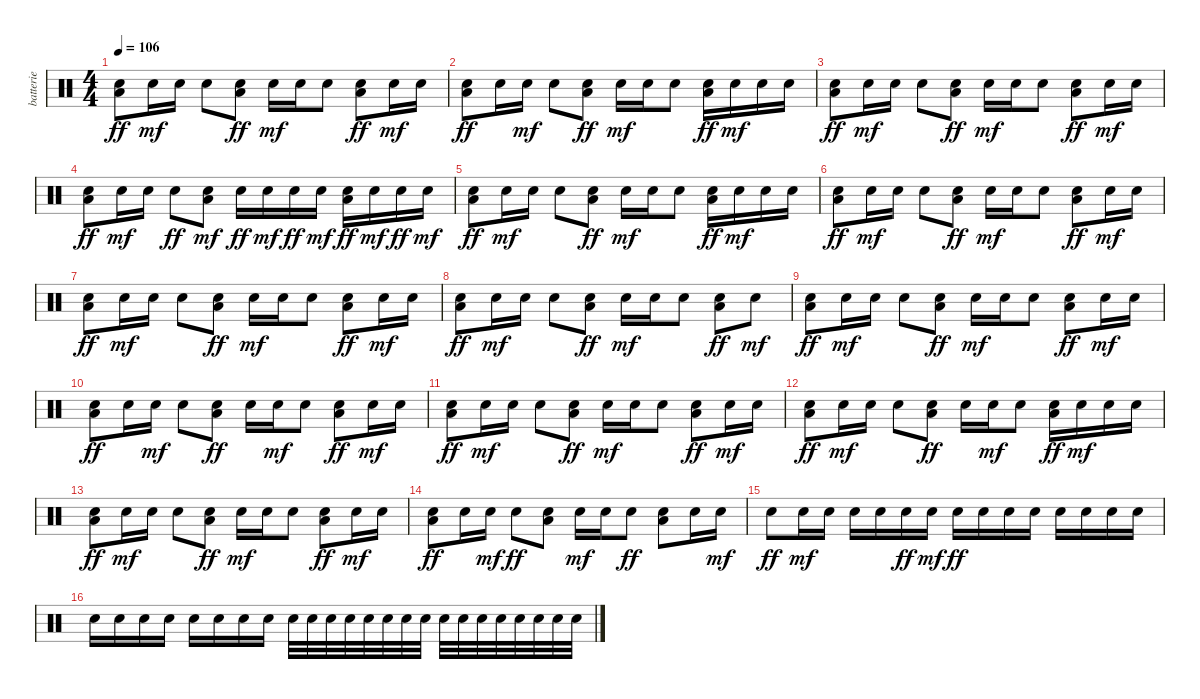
\track ("batterie" "batterie") {instrument percussion}
\staff {score}
\articulation defaults
\ts (4 4)
\tempo 106
\clef neutral
\ks c
("Electric Snare (hit)" "Low Floor Tom (hit)").8{dy ff} "Electric Snare (hit)".16{dy mf} "Electric Snare (hit)".16 "Electric Snare (hit)".8 ("Electric Snare (hit)" "Low Floor Tom (hit)").8{dy ff} "Electric Snare (hit)".16{dy mf} "Electric Snare (hit)".16 "Electric Snare (hit)".8 ("Electric Snare (hit)" "Low Floor Tom (hit)").8{dy ff} "Electric Snare (hit)".16{dy mf} "Electric Snare (hit)".16 |
("Electric Snare (hit)" "Low Floor Tom (hit)").8{dy ff} "Electric Snare (hit)".16 "Electric Snare (hit)".16{dy mf} "Electric Snare (hit)".8 ("Electric Snare (hit)" "Low Floor Tom (hit)").8{dy ff} "Electric Snare (hit)".16{dy mf} "Electric Snare (hit)".16 "Electric Snare (hit)".8 ("Electric Snare (hit)" "Low Floor Tom (hit)").16{dy ff} "Electric Snare (hit)".16{dy mf} "Electric Snare (hit)".16 "Electric Snare (hit)".16 |
("Electric Snare (hit)" "Low Floor Tom (hit)").8{dy ff} "Electric Snare (hit)".16{dy mf} "Electric Snare (hit)".16 "Electric Snare (hit)".8 ("Electric Snare (hit)" "Low Floor Tom (hit)").8{dy ff} "Electric Snare (hit)".16{dy mf} "Electric Snare (hit)".16 "Electric Snare (hit)".8 ("Electric Snare (hit)" "Low Floor Tom (hit)").8{dy ff} "Electric Snare (hit)".16{dy mf} "Electric Snare (hit)".16 |
("Electric Snare (hit)" "Low Floor Tom (hit)").8{dy ff} "Electric Snare (hit)".16{dy mf} "Electric Snare (hit)".16 "Electric Snare (hit)".8{dy ff} ("Electric Snare (hit)" "Low Floor Tom (hit)").8{dy mf} "Electric Snare (hit)".16{dy ff} "Electric Snare (hit)".16{dy mf} "Electric Snare (hit)".16{dy ff} "Electric Snare (hit)".16{dy mf} ("Electric Snare (hit)" "Low Floor Tom (hit)").16{dy ff} "Electric Snare (hit)".16{dy mf} "Electric Snare (hit)".16{dy ff} "Electric Snare (hit)".16{dy mf} |
("Electric Snare (hit)" "Low Floor Tom (hit)").8{dy ff} "Electric Snare (hit)".16{dy mf} "Electric Snare (hit)".16 "Electric Snare (hit)".8 ("Electric Snare (hit)" "Low Floor Tom (hit)").8{dy ff} "Electric Snare (hit)".16{dy mf} "Electric Snare (hit)".16 "Electric Snare (hit)".8 ("Electric Snare (hit)" "Low Floor Tom (hit)").16{dy ff} "Electric Snare (hit)".16{dy mf} "Electric Snare (hit)".16 "Electric Snare (hit)".16 |
("Electric Snare (hit)" "Low Floor Tom (hit)").8{dy ff} "Electric Snare (hit)".16{dy mf} "Electric Snare (hit)".16 "Electric Snare (hit)".8 ("Electric Snare (hit)" "Low Floor Tom (hit)").8{dy ff} "Electric Snare (hit)".16{dy mf} "Electric Snare (hit)".16 "Electric Snare (hit)".8 ("Electric Snare (hit)" "Low Floor Tom (hit)").8{dy ff} "Electric Snare (hit)".16{dy mf} "Electric Snare (hit)".16 |
("Electric Snare (hit)" "Low Floor Tom (hit)").8{dy ff} "Electric Snare (hit)".16{dy mf} "Electric Snare (hit)".16 "Electric Snare (hit)".8 ("Electric Snare (hit)" "Low Floor Tom (hit)").8{dy ff} "Electric Snare (hit)".16{dy mf} "Electric Snare (hit)".16 "Electric Snare (hit)".8 ("Electric Snare (hit)" "Low Floor Tom (hit)").8{dy ff} "Electric Snare (hit)".16{dy mf} "Electric Snare (hit)".16 |
("Electric Snare (hit)" "Low Floor Tom (hit)").8{dy ff} "Electric Snare (hit)".16{dy mf} "Electric Snare (hit)".16 "Electric Snare (hit)".8 ("Electric Snare (hit)" "Low Floor Tom (hit)").8{dy ff} "Electric Snare (hit)".16{dy mf} "Electric Snare (hit)".16 "Electric Snare (hit)".8 ("Electric Snare (hit)" "Low Floor Tom (hit)").8{dy ff} "Electric Snare (hit)".8{dy mf} |
("Electric Snare (hit)" "Low Floor Tom (hit)").8{dy ff} "Electric Snare (hit)".16{dy mf} "Electric Snare (hit)".16 "Electric Snare (hit)".8 ("Electric Snare (hit)" "Low Floor Tom (hit)").8{dy ff} "Electric Snare (hit)".16{dy mf} "Electric Snare (hit)".16 "Electric Snare (hit)".8 ("Electric Snare (hit)" "Low Floor Tom (hit)").8{dy ff} "Electric Snare (hit)".16{dy mf} "Electric Snare (hit)".16 |
("Electric Snare (hit)" "Low Floor Tom (hit)").8{dy ff} "Electric Snare (hit)".16 "Electric Snare (hit)".16{dy mf} "Electric Snare (hit)".8 ("Electric Snare (hit)" "Low Floor Tom (hit)").8{dy ff} "Electric Snare (hit)".16 "Electric Snare (hit)".16{dy mf} "Electric Snare (hit)".8 ("Electric Snare (hit)" "Low Floor Tom (hit)").8{dy ff} "Electric Snare (hit)".16{dy mf} "Electric Snare (hit)".16 |
("Electric Snare (hit)" "Low Floor Tom (hit)").8{dy ff} "Electric Snare (hit)".16{dy mf} "Electric Snare (hit)".16 "Electric Snare (hit)".8 ("Electric Snare (hit)" "Low Floor Tom (hit)").8{dy ff} "Electric Snare (hit)".16{dy mf} "Electric Snare (hit)".16 "Electric Snare (hit)".8 ("Electric Snare (hit)" "Low Floor Tom (hit)").8{dy ff} "Electric Snare (hit)".16{dy mf} "Electric Snare (hit)".16 |
("Electric Snare (hit)" "Low Floor Tom (hit)").8{dy ff} "Electric Snare (hit)".16{dy mf} "Electric Snare (hit)".16 "Electric Snare (hit)".8 ("Electric Snare (hit)" "Low Floor Tom (hit)").8{dy ff} "Electric Snare (hit)".16 "Electric Snare (hit)".16{dy mf} "Electric Snare (hit)".8 ("Electric Snare (hit)" "Low Floor Tom (hit)").16{dy ff} "Electric Snare (hit)".16{dy mf} "Electric Snare (hit)".16 "Electric Snare (hit)".16 |
("Electric Snare (hit)" "Low Floor Tom (hit)").8{dy ff} "Electric Snare (hit)".16{dy mf} "Electric Snare (hit)".16 "Electric Snare (hit)".8 ("Electric Snare (hit)" "Low Floor Tom (hit)").8{dy ff} "Electric Snare (hit)".16{dy mf} "Electric Snare (hit)".16 "Electric Snare (hit)".8 ("Electric Snare (hit)" "Low Floor Tom (hit)").8{dy ff} "Electric Snare (hit)".16{dy mf} "Electric Snare (hit)".16 |
("Electric Snare (hit)" "Low Floor Tom (hit)").8{dy ff} "Electric Snare (hit)".16 "Electric Snare (hit)".16{dy mf} "Electric Snare (hit)".8{dy ff} ("Electric Snare (hit)" "Low Floor Tom (hit)").8 "Electric Snare (hit)".16{dy mf} "Electric Snare (hit)".16 "Electric Snare (hit)".8{dy ff} ("Electric Snare (hit)" "Low Floor Tom (hit)").8 "Electric Snare (hit)".16 "Electric Snare (hit)".16{dy mf} |
"Electric Snare (hit)".8{dy ff} "Electric Snare (hit)".16{dy mf} "Electric Snare (hit)".16 "Electric Snare (hit)".16 "Electric Snare (hit)".16 "Electric Snare (hit)".16{dy ff} "Electric Snare (hit)".16{dy mf} "Electric Snare (hit)".16{dy ff volume 5} "Electric Snare (hit)".16{volume 6} "Electric Snare (hit)".16{volume 8} "Electric Snare (hit)".16{volume 9} "Electric Snare (hit)".16{volume 10} "Electric Snare (hit)".16{volume 12} "Electric Snare (hit)".16{volume 13} "Electric Snare (hit)".16{volume 14} |
"Electric Snare (hit)".16{volume 16} "Electric Snare (hit)".16 "Electric Snare (hit)".16 "Electric Snare (hit)".16 "Electric Snare (hit)".16 "Electric Snare (hit)".16 "Electric Snare (hit)".16 "Electric Snare (hit)".16 "Electric Snare (hit)".32 "Electric Snare (hit)".32 "Electric Snare (hit)".32 "Electric Snare (hit)".32 "Electric Snare (hit)".32 "Electric Snare (hit)".32 "Electric Snare (hit)".32 "Electric Snare (hit)".32 "Electric Snare (hit)".32 "Electric Snare (hit)".32 "Electric Snare (hit)".32 "Electric Snare (hit)".32 "Electric Snare (hit)".32 "Electric Snare (hit)".32 "Electric Snare (hit)".32 "Electric Snare (hit)".32
